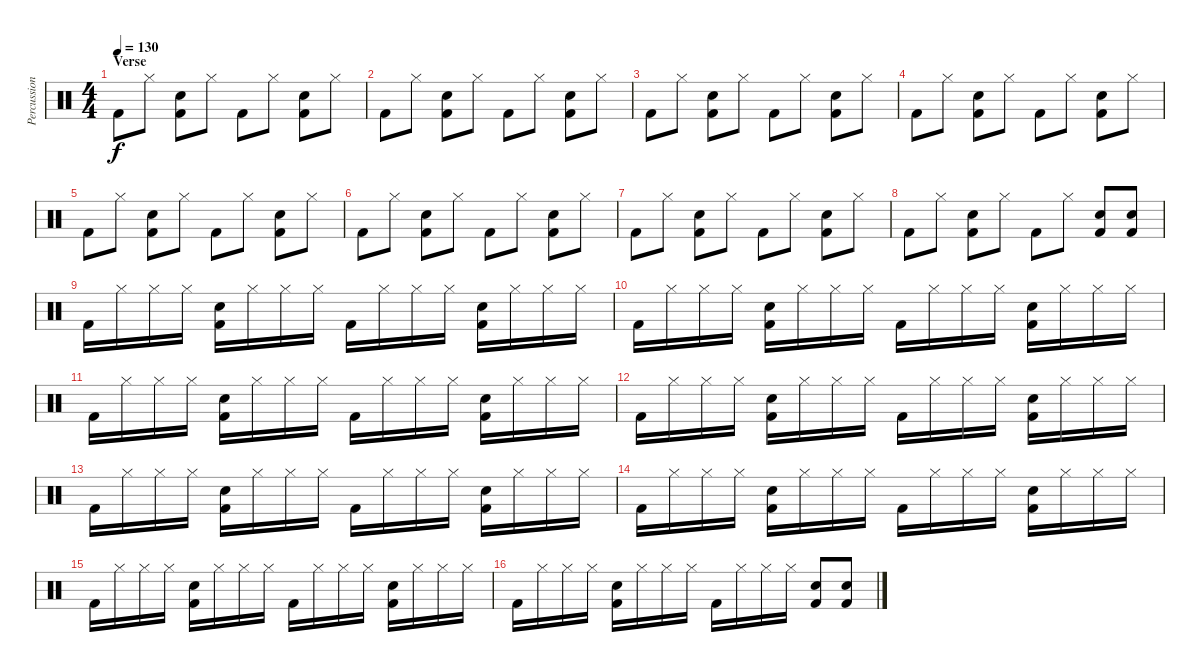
\track ("Percussion" "Percussion") {instrument percussion}
\staff {score}
\articulation defaults
\ts (4 4)
\section ("" "Verse")
\tempo 130
\clef neutral
\ks c "Kick (hit) 2".8{dy f} "Hi-Hat (closed)".8
("Electric Snare (hit)" "Kick (hit) 2").8 "Hi-Hat (closed)".8 "Kick (hit) 2".8 "Hi-Hat (closed)".8 ("Electric Snare (hit)" "Kick (hit) 2").8 "Hi-Hat (closed)".8 |
"Kick (hit) 2".8 "Hi-Hat (closed)".8 ("Electric Snare (hit)" "Kick (hit) 2").8 "Hi-Hat (closed)".8 "Kick (hit) 2".8 "Hi-Hat (closed)".8 ("Electric Snare (hit)" "Kick (hit) 2").8 "Hi-Hat (closed)".8 |
"Kick (hit) 2".8 "Hi-Hat (closed)".8 ("Electric Snare (hit)" "Kick (hit) 2").8 "Hi-Hat (closed)".8 "Kick (hit) 2".8 "Hi-Hat (closed)".8 ("Electric Snare (hit)" "Kick (hit) 2").8 "Hi-Hat (closed)".8 |
"Kick (hit) 2".8 "Hi-Hat (closed)".8 ("Electric Snare (hit)" "Kick (hit) 2").8 "Hi-Hat (closed)".8 "Kick (hit) 2".8 "Hi-Hat (closed)".8 ("Electric Snare (hit)" "Kick (hit) 2").8 "Hi-Hat (closed)".8 |
"Kick (hit) 2".8 "Hi-Hat (closed)".8 ("Electric Snare (hit)" "Kick (hit) 2").8 "Hi-Hat (closed)".8 "Kick (hit) 2".8 "Hi-Hat (closed)".8 ("Electric Snare (hit)" "Kick (hit) 2").8 "Hi-Hat (closed)".8 |
"Kick (hit) 2".8 "Hi-Hat (closed)".8 ("Electric Snare (hit)" "Kick (hit) 2").8 "Hi-Hat (closed)".8 "Kick (hit) 2".8 "Hi-Hat (closed)".8 ("Electric Snare (hit)" "Kick (hit) 2").8 "Hi-Hat (closed)".8 |
"Kick (hit) 2".8 "Hi-Hat (closed)".8 ("Electric Snare (hit)" "Kick (hit) 2").8 "Hi-Hat (closed)".8 "Kick (hit) 2".8 "Hi-Hat (closed)".8 ("Electric Snare (hit)" "Kick (hit) 2").8 "Hi-Hat (closed)".8 |
"Kick (hit) 2".8 "Hi-Hat (closed)".8 ("Electric Snare (hit)" "Kick (hit) 2").8 "Hi-Hat (closed)".8 "Kick (hit) 2".8 "Hi-Hat (closed)".8 ("Electric Snare (hit)" "Kick (hit) 2").8 ("Electric Snare (hit)" "Kick (hit) 2").8 |
"Kick (hit) 2".16 "Hi-Hat (closed)".16 "Hi-Hat (closed)".16 "Hi-Hat (closed)".16 ("Electric Snare (hit)" "Kick (hit) 2").16 "Hi-Hat (closed)".16 "Hi-Hat (closed)".16 "Hi-Hat (closed)".16 "Kick (hit) 2".16 "Hi-Hat (closed)".16 "Hi-Hat (closed)".16 "Hi-Hat (closed)".16 ("Electric Snare (hit)" "Kick (hit) 2").16 "Hi-Hat (closed)".16 "Hi-Hat (closed)".16 "Hi-Hat (closed)".16 |
"Kick (hit) 2".16 "Hi-Hat (closed)".16 "Hi-Hat (closed)".16 "Hi-Hat (closed)".16 ("Electric Snare (hit)" "Kick (hit) 2").16 "Hi-Hat (closed)".16 "Hi-Hat (closed)".16 "Hi-Hat (closed)".16 "Kick (hit) 2".16 "Hi-Hat (closed)".16 "Hi-Hat (closed)".16 "Hi-Hat (closed)".16 ("Electric Snare (hit)" "Kick (hit) 2").16 "Hi-Hat (closed)".16 "Hi-Hat (closed)".16 "Hi-Hat (closed)".16 |
"Kick (hit) 2".16 "Hi-Hat (closed)".16 "Hi-Hat (closed)".16 "Hi-Hat (closed)".16 ("Electric Snare (hit)" "Kick (hit) 2").16 "Hi-Hat (closed)".16 "Hi-Hat (closed)".16 "Hi-Hat (closed)".16 "Kick (hit) 2".16 "Hi-Hat (closed)".16 "Hi-Hat (closed)".16 "Hi-Hat (closed)".16 ("Electric Snare (hit)" "Kick (hit) 2").16 "Hi-Hat (closed)".16 "Hi-Hat (closed)".16 "Hi-Hat (closed)".16 |
"Kick (hit) 2".16 "Hi-Hat (closed)".16 "Hi-Hat (closed)".16 "Hi-Hat (closed)".16 ("Electric Snare (hit)" "Kick (hit) 2").16 "Hi-Hat (closed)".16 "Hi-Hat (closed)".16 "Hi-Hat (closed)".16 "Kick (hit) 2".16 "Hi-Hat (closed)".16 "Hi-Hat (closed)".16 "Hi-Hat (closed)".16 ("Electric Snare (hit)" "Kick (hit) 2").16 "Hi-Hat (closed)".16 "Hi-Hat (closed)".16 "Hi-Hat (closed)".16 |
"Kick (hit) 2".16 "Hi-Hat (closed)".16 "Hi-Hat (closed)".16 "Hi-Hat (closed)".16 ("Electric Snare (hit)" "Kick (hit) 2").16 "Hi-Hat (closed)".16 "Hi-Hat (closed)".16 "Hi-Hat (closed)".16 "Kick (hit) 2".16 "Hi-Hat (closed)".16 "Hi-Hat (closed)".16 "Hi-Hat (closed)".16 ("Electric Snare (hit)" "Kick (hit) 2").16 "Hi-Hat (closed)".16 "Hi-Hat (closed)".16 "Hi-Hat (closed)".16 |
"Kick (hit) 2".16 "Hi-Hat (closed)".16 "Hi-Hat (closed)".16 "Hi-Hat (closed)".16 ("Electric Snare (hit)" "Kick (hit) 2").16 "Hi-Hat (closed)".16 "Hi-Hat (closed)".16 "Hi-Hat (closed)".16 "Kick (hit) 2".16 "Hi-Hat (closed)".16 "Hi-Hat (closed)".16 "Hi-Hat (closed)".16 ("Electric Snare (hit)" "Kick (hit) 2").16 "Hi-Hat (closed)".16 "Hi-Hat (closed)".16 "Hi-Hat (closed)".16 |
"Kick (hit) 2".16 "Hi-Hat (closed)".16 "Hi-Hat (closed)".16 "Hi-Hat (closed)".16 ("Electric Snare (hit)" "Kick (hit) 2").16 "Hi-Hat (closed)".16 "Hi-Hat (closed)".16 "Hi-Hat (closed)".16 "Kick (hit) 2".16 "Hi-Hat (closed)".16 "Hi-Hat (closed)".16 "Hi-Hat (closed)".16 ("Electric Snare (hit)" "Kick (hit) 2").16 "Hi-Hat (closed)".16 "Hi-Hat (closed)".16 "Hi-Hat (closed)".16 |
"Kick (hit) 2".16 "Hi-Hat (closed)".16 "Hi-Hat (closed)".16 "Hi-Hat (closed)".16 ("Electric Snare (hit)" "Kick (hit) 2").16 "Hi-Hat (closed)".16 "Hi-Hat (closed)".16 "Hi-Hat (closed)".16 "Kick (hit) 2".16 "Hi-Hat (closed)".16 "Hi-Hat (closed)".16 "Hi-Hat (closed)".16 ("Electric Snare (hit)" "Kick (hit) 2").8 ("Electric Snare (hit)" "Kick (hit) 2").8
